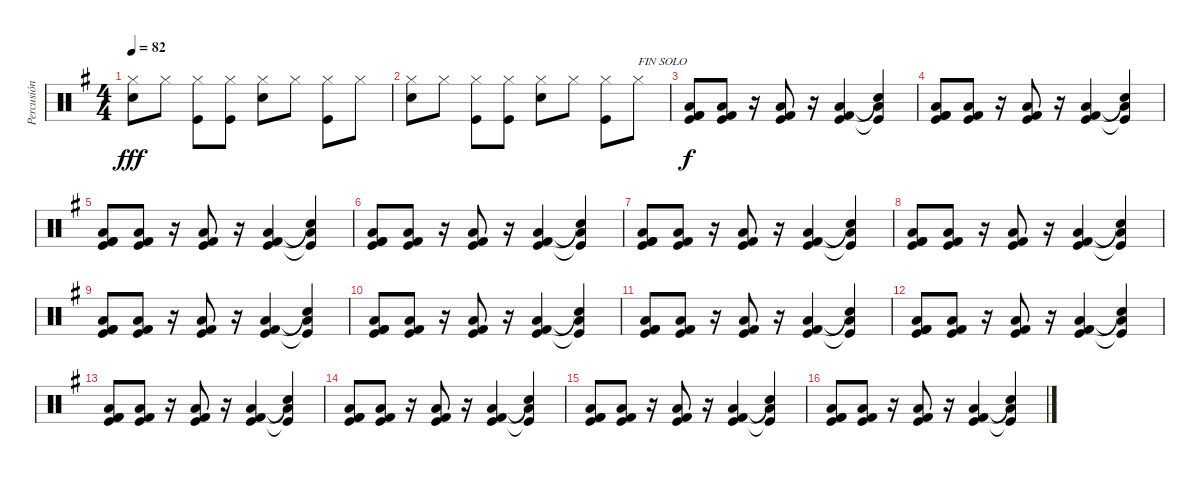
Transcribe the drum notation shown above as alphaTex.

\track ("Percusión" "Percusión") {instrument percussion}
\staff {score}
\articulation defaults
\ts (4 4)
\tempo 82
\clef neutral
\ks eminor
("Hi-Hat (closed)" "Snare (hit) 2").8{dy fff} "Hi-Hat (closed)".8 ("Hi-Hat (closed)" "Kick (hit)").8 ("Hi-Hat (closed)" "Kick (hit)").8 ("Hi-Hat (closed)" "Snare (hit) 2").8 "Hi-Hat (closed)".8 ("Hi-Hat (closed)" "Kick (hit)").8 "Hi-Hat (closed)".8 |
("Hi-Hat (closed)" "Snare (hit) 2").8 "Hi-Hat (closed)".8 ("Hi-Hat (closed)" "Kick (hit)").8 ("Hi-Hat (closed)" "Kick (hit)").8 ("Hi-Hat (closed)" "Snare (hit) 2").8 "Hi-Hat (closed)".8 ("Hi-Hat (closed)" "Kick (hit)").8 "Hi-Hat (closed)".8{txt "FIN SOLO"} |
("Low Floor Tom (hit)" "Kick (hit) 2" "Kick (hit)" "Kick (hit) 2").8{dy f} ("Low Floor Tom (hit)" "Kick (hit) 2" "Kick (hit)").8 r.16 ("Low Floor Tom (hit)" "Kick (hit) 2" "Kick (hit)").8 r.16 ("Low Floor Tom (hit)" "Kick (hit) 2" "Kick (hit)").4 ("Low Floor Tom (hit)"{t} "Hand Clap (hit)"{t} "Kick (hit)"{t}).4 |
("Low Floor Tom (hit)" "Kick (hit) 2" "Kick (hit)" "Kick (hit) 2").8 ("Low Floor Tom (hit)" "Kick (hit) 2" "Kick (hit)").8 r.16 ("Low Floor Tom (hit)" "Kick (hit) 2" "Kick (hit)").8 r.16 ("Low Floor Tom (hit)" "Kick (hit) 2" "Kick (hit)").4 ("Low Floor Tom (hit)"{t} "Hand Clap (hit)"{t} "Kick (hit)"{t}).4 |
("Low Floor Tom (hit)" "Kick (hit) 2" "Kick (hit)" "Kick (hit) 2").8 ("Low Floor Tom (hit)" "Kick (hit) 2" "Kick (hit)").8 r.16 ("Low Floor Tom (hit)" "Kick (hit) 2" "Kick (hit)").8 r.16 ("Low Floor Tom (hit)" "Kick (hit) 2" "Kick (hit)").4 ("Low Floor Tom (hit)"{t} "Hand Clap (hit)"{t} "Kick (hit)"{t}).4 |
("Low Floor Tom (hit)" "Kick (hit) 2" "Kick (hit)" "Kick (hit) 2").8 ("Low Floor Tom (hit)" "Kick (hit) 2" "Kick (hit)").8 r.16 ("Low Floor Tom (hit)" "Kick (hit) 2" "Kick (hit)").8 r.16 ("Low Floor Tom (hit)" "Kick (hit) 2" "Kick (hit)").4 ("Low Floor Tom (hit)"{t} "Hand Clap (hit)"{t} "Kick (hit)"{t}).4 |
("Low Floor Tom (hit)" "Kick (hit) 2" "Kick (hit)" "Kick (hit) 2").8 ("Low Floor Tom (hit)" "Kick (hit) 2" "Kick (hit)").8 r.16 ("Low Floor Tom (hit)" "Kick (hit) 2" "Kick (hit)").8 r.16 ("Low Floor Tom (hit)" "Kick (hit) 2" "Kick (hit)").4 ("Low Floor Tom (hit)"{t} "Hand Clap (hit)"{t} "Kick (hit)"{t}).4 |
("Low Floor Tom (hit)" "Kick (hit) 2" "Kick (hit)" "Kick (hit) 2").8 ("Low Floor Tom (hit)" "Kick (hit) 2" "Kick (hit)").8 r.16 ("Low Floor Tom (hit)" "Kick (hit) 2" "Kick (hit)").8 r.16 ("Low Floor Tom (hit)" "Kick (hit) 2" "Kick (hit)").4 ("Low Floor Tom (hit)"{t} "Hand Clap (hit)"{t} "Kick (hit)"{t}).4 |
("Low Floor Tom (hit)" "Kick (hit) 2" "Kick (hit)" "Kick (hit) 2").8 ("Low Floor Tom (hit)" "Kick (hit) 2" "Kick (hit)").8 r.16 ("Low Floor Tom (hit)" "Kick (hit) 2" "Kick (hit)").8 r.16 ("Low Floor Tom (hit)" "Kick (hit) 2" "Kick (hit)").4 ("Low Floor Tom (hit)"{t} "Hand Clap (hit)"{t} "Kick (hit)"{t}).4 |
("Low Floor Tom (hit)" "Kick (hit) 2" "Kick (hit)" "Kick (hit) 2").8 ("Low Floor Tom (hit)" "Kick (hit) 2" "Kick (hit)").8 r.16 ("Low Floor Tom (hit)" "Kick (hit) 2" "Kick (hit)").8 r.16 ("Low Floor Tom (hit)" "Kick (hit) 2" "Kick (hit)").4 ("Low Floor Tom (hit)"{t} "Hand Clap (hit)"{t} "Kick (hit)"{t}).4 |
("Low Floor Tom (hit)" "Kick (hit) 2" "Kick (hit)" "Kick (hit) 2").8 ("Low Floor Tom (hit)" "Kick (hit) 2" "Kick (hit)").8 r.16 ("Low Floor Tom (hit)" "Kick (hit) 2" "Kick (hit)").8 r.16 ("Low Floor Tom (hit)" "Kick (hit) 2" "Kick (hit)").4 ("Low Floor Tom (hit)"{t} "Hand Clap (hit)"{t} "Kick (hit)"{t}).4 |
("Low Floor Tom (hit)" "Kick (hit) 2" "Kick (hit)" "Kick (hit) 2").8 ("Low Floor Tom (hit)" "Kick (hit) 2" "Kick (hit)").8 r.16 ("Low Floor Tom (hit)" "Kick (hit) 2" "Kick (hit)").8 r.16 ("Low Floor Tom (hit)" "Kick (hit) 2" "Kick (hit)").4 ("Low Floor Tom (hit)"{t} "Hand Clap (hit)"{t} "Kick (hit)"{t}).4 |
("Low Floor Tom (hit)" "Kick (hit) 2" "Kick (hit)" "Kick (hit) 2").8 ("Low Floor Tom (hit)" "Kick (hit) 2" "Kick (hit)").8 r.16 ("Low Floor Tom (hit)" "Kick (hit) 2" "Kick (hit)").8 r.16 ("Low Floor Tom (hit)" "Kick (hit) 2" "Kick (hit)").4 ("Low Floor Tom (hit)"{t} "Hand Clap (hit)"{t} "Kick (hit)"{t}).4 |
("Low Floor Tom (hit)" "Kick (hit) 2" "Kick (hit)" "Kick (hit) 2").8 ("Low Floor Tom (hit)" "Kick (hit) 2" "Kick (hit)").8 r.16 ("Low Floor Tom (hit)" "Kick (hit) 2" "Kick (hit)").8 r.16 ("Low Floor Tom (hit)" "Kick (hit) 2" "Kick (hit)").4 ("Low Floor Tom (hit)"{t} "Hand Clap (hit)"{t} "Kick (hit)"{t}).4 |
("Low Floor Tom (hit)" "Kick (hit) 2" "Kick (hit)" "Kick (hit) 2").8 ("Low Floor Tom (hit)" "Kick (hit) 2" "Kick (hit)").8 r.16 ("Low Floor Tom (hit)" "Kick (hit) 2" "Kick (hit)").8 r.16 ("Low Floor Tom (hit)" "Kick (hit) 2" "Kick (hit)").4 ("Low Floor Tom (hit)"{t} "Hand Clap (hit)"{t} "Kick (hit)"{t}).4 |
("Low Floor Tom (hit)" "Kick (hit) 2" "Kick (hit)" "Kick (hit) 2").8 ("Low Floor Tom (hit)" "Kick (hit) 2" "Kick (hit)").8 r.16 ("Low Floor Tom (hit)" "Kick (hit) 2" "Kick (hit)").8 r.16 ("Low Floor Tom (hit)" "Kick (hit) 2" "Kick (hit)").4 ("Low Floor Tom (hit)"{t} "Hand Clap (hit)"{t} "Kick (hit)"{t}).4
